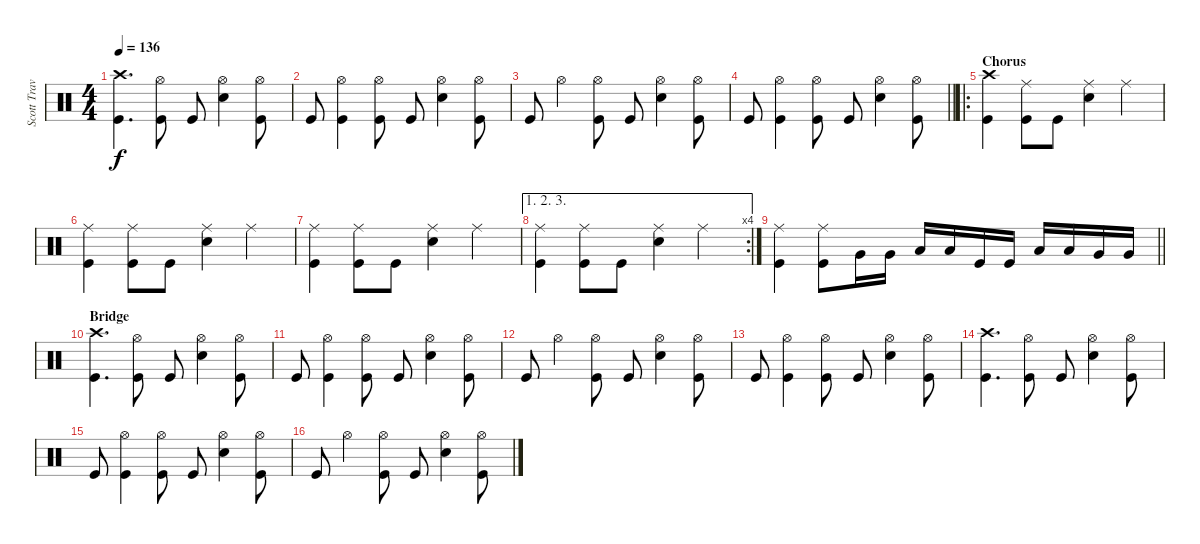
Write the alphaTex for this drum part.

\track ("Scott Travis" "Scott Trav") {instrument percussion}
\staff {score}
\articulation defaults
\ts (4 4)
\tempo 136
\clef neutral
\ks c
("Crash high (hit)" "Kick (hit)").4{d dy f} ("Hi-Hat (open)" "Kick (hit)").8 "Kick (hit)".8 ("Hi-Hat (open)" "Electric Snare (hit)").4 ("Hi-Hat (open)" "Kick (hit)").8 |
"Kick (hit)".8 ("Hi-Hat (open)" "Kick (hit)").4 ("Hi-Hat (open)" "Kick (hit)").8 "Kick (hit)".8 ("Hi-Hat (open)" "Electric Snare (hit)").4 ("Hi-Hat (open)" "Kick (hit)").8 |
"Kick (hit)".8 "Hi-Hat (open)".4 ("Hi-Hat (open)" "Kick (hit)").8 "Kick (hit)".8 ("Hi-Hat (open)" "Electric Snare (hit)").4 ("Hi-Hat (open)" "Kick (hit)").8 |
\barLineRight lightlight "Kick (hit)".8
("Hi-Hat (open)" "Kick (hit)").4 ("Hi-Hat (open)" "Kick (hit)").8 "Kick (hit)".8 ("Hi-Hat (open)" "Electric Snare (hit)").4 ("Hi-Hat (open)" "Kick (hit)").8 |
\ro
\section ("" "Chorus")
("Crash high (hit)" "Kick (hit)").4 ("Ride (middle)" "Kick (hit)").8 "Kick (hit)".8 ("Ride (middle)" "Electric Snare (hit)").4 "Ride (middle)".4 |
("Ride (middle)" "Kick (hit)").4 ("Ride (middle)" "Kick (hit)").8 "Kick (hit)".8 ("Ride (middle)" "Electric Snare (hit)").4 "Ride (middle)".4 |
("Ride (middle)" "Kick (hit)").4 ("Ride (middle)" "Kick (hit)").8 "Kick (hit)".8 ("Ride (middle)" "Electric Snare (hit)").4 "Ride (middle)".4 |
\ae (1 2 3)
\rc 4
("Ride (middle)" "Kick (hit)").4 ("Ride (middle)" "Kick (hit)").8 "Kick (hit)".8 ("Ride (middle)" "Electric Snare (hit)").4 "Ride (middle)".4 |
\barLineRight lightlight
("Ride (middle)" "Kick (hit)").4 ("Ride (middle)" "Kick (hit)").8 "Very Low Tom (hit)".16 "Very Low Tom (hit)".16 "Low Floor Tom (hit)".16 "Low Floor Tom (hit)".16 "Kick (hit)".16 "Kick (hit)".16 "Low Tom (hit)".16 "Low Tom (hit)".16 "Very Low Tom (hit)".16 "Very Low Tom (hit)".16 |
\section ("" "Bridge")
("Crash high (hit)" "Kick (hit)").4{d} ("Hi-Hat (open)" "Kick (hit)").8 "Kick (hit)".8 ("Hi-Hat (open)" "Electric Snare (hit)").4 ("Hi-Hat (open)" "Kick (hit)").8 |
"Kick (hit)".8 ("Hi-Hat (open)" "Kick (hit)").4 ("Hi-Hat (open)" "Kick (hit)").8 "Kick (hit)".8 ("Hi-Hat (open)" "Electric Snare (hit)").4 ("Hi-Hat (open)" "Kick (hit)").8 |
"Kick (hit)".8 "Hi-Hat (open)".4 ("Hi-Hat (open)" "Kick (hit)").8 "Kick (hit)".8 ("Hi-Hat (open)" "Electric Snare (hit)").4 ("Hi-Hat (open)" "Kick (hit)").8 |
"Kick (hit)".8 ("Hi-Hat (open)" "Kick (hit)").4 ("Hi-Hat (open)" "Kick (hit)").8 "Kick (hit)".8 ("Hi-Hat (open)" "Electric Snare (hit)").4 ("Hi-Hat (open)" "Kick (hit)").8 |
("Crash high (hit)" "Kick (hit)").4{d} ("Hi-Hat (open)" "Kick (hit)").8 "Kick (hit)".8 ("Hi-Hat (open)" "Electric Snare (hit)").4 ("Hi-Hat (open)" "Kick (hit)").8 |
"Kick (hit)".8 ("Hi-Hat (open)" "Kick (hit)").4 ("Hi-Hat (open)" "Kick (hit)").8 "Kick (hit)".8 ("Hi-Hat (open)" "Electric Snare (hit)").4 ("Hi-Hat (open)" "Kick (hit)").8 |
"Kick (hit)".8 "Hi-Hat (open)".4 ("Hi-Hat (open)" "Kick (hit)").8 "Kick (hit)".8 ("Hi-Hat (open)" "Electric Snare (hit)").4 ("Hi-Hat (open)" "Kick (hit)").8
